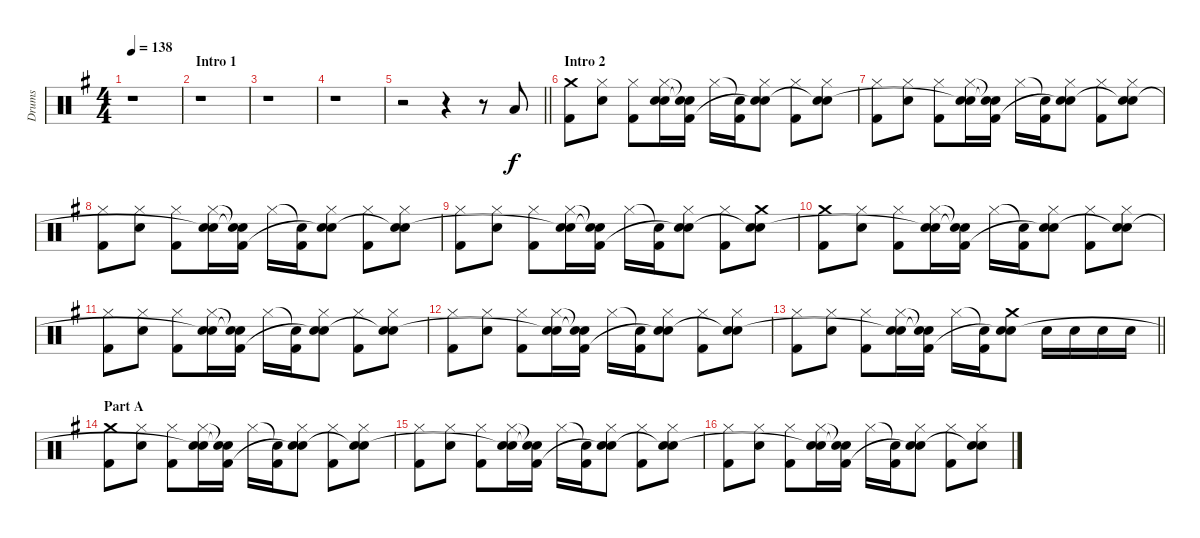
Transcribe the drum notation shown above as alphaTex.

\track ("Drums" "Drums") {instrument percussion}
\staff {score}
\articulation defaults
\ts (4 4)
\tempo 138
\clef neutral
\ks g
r.1{dy f} |
\section ("" "Intro 1")
r.1 |
r.1 |
r.1 |
\barLineRight lightlight
r.2 r.4 r.8 "Low Floor Tom (hit)".8 |
\section ("" "Intro 2")
("Crash medium (hit)" "Kick (hit) 2").8 ("Hi-Hat (closed)" "Electric Snare (hit)").8 ("Hi-Hat (closed)" "Kick (hit) 2").8 ("Hi-Hat (closed)" "Electric Snare (hit)" "Snare (hit)").16 ("Snare (hit)"{t} "Snare (hit)"{t} "Kick (hit) 2").16 "Hi-Hat (closed)".16 ("Snare (hit)"{t} "Kick (hit) 2").16 ("Hi-Hat (closed)" "Electric Snare (hit)" "Snare (hit)"{t}).8 ("Hi-Hat (closed)" "Kick (hit) 2").8 ("Hi-Hat (closed)" "Electric Snare (hit)" "Snare (hit)"{t}).8 |
("Hi-Hat (closed)" "Kick (hit) 2").8 ("Hi-Hat (closed)" "Electric Snare (hit)").8 ("Hi-Hat (closed)" "Kick (hit) 2").8 ("Hi-Hat (closed)" "Electric Snare (hit)" "Snare (hit)"{t}).16 ("Snare (hit)"{t} "Snare (hit)"{t} "Kick (hit) 2").16 "Hi-Hat (closed)".16 ("Snare (hit)"{t} "Kick (hit) 2").16 ("Hi-Hat (closed)" "Electric Snare (hit)" "Snare (hit)"{t}).8 ("Hi-Hat (closed)" "Kick (hit) 2").8 ("Hi-Hat (closed)" "Electric Snare (hit)" "Snare (hit)"{t}).8 |
("Hi-Hat (closed)" "Kick (hit) 2").8 ("Hi-Hat (closed)" "Electric Snare (hit)").8 ("Hi-Hat (closed)" "Kick (hit) 2").8 ("Hi-Hat (closed)" "Electric Snare (hit)" "Snare (hit)"{t}).16 ("Snare (hit)"{t} "Snare (hit)"{t} "Kick (hit) 2").16 "Hi-Hat (closed)".16 ("Snare (hit)"{t} "Kick (hit) 2").16 ("Hi-Hat (closed)" "Electric Snare (hit)" "Snare (hit)"{t}).8 ("Hi-Hat (closed)" "Kick (hit) 2").8 ("Hi-Hat (closed)" "Electric Snare (hit)" "Snare (hit)"{t}).8 |
("Hi-Hat (closed)" "Kick (hit) 2").8 ("Hi-Hat (closed)" "Electric Snare (hit)").8 ("Hi-Hat (closed)" "Kick (hit) 2").8 ("Hi-Hat (closed)" "Electric Snare (hit)" "Snare (hit)"{t}).16 ("Snare (hit)"{t} "Snare (hit)"{t} "Kick (hit) 2").16 "Hi-Hat (closed)".16 ("Snare (hit)"{t} "Kick (hit) 2").16 ("Hi-Hat (closed)" "Electric Snare (hit)" "Snare (hit)"{t}).8 ("Hi-Hat (closed)" "Kick (hit) 2").8 ("Crash medium (hit)" "Electric Snare (hit)" "Snare (hit)"{t}).8 |
("Crash medium (hit)" "Kick (hit) 2").8 ("Hi-Hat (closed)" "Electric Snare (hit)").8 ("Hi-Hat (closed)" "Kick (hit) 2").8 ("Hi-Hat (closed)" "Electric Snare (hit)" "Snare (hit)"{t}).16 ("Snare (hit)"{t} "Snare (hit)"{t} "Kick (hit) 2").16 "Hi-Hat (closed)".16 ("Snare (hit)"{t} "Kick (hit) 2").16 ("Hi-Hat (closed)" "Electric Snare (hit)" "Snare (hit)"{t}).8 ("Hi-Hat (closed)" "Kick (hit) 2").8 ("Hi-Hat (closed)" "Electric Snare (hit)" "Snare (hit)"{t}).8 |
("Hi-Hat (closed)" "Kick (hit) 2").8 ("Hi-Hat (closed)" "Electric Snare (hit)").8 ("Hi-Hat (closed)" "Kick (hit) 2").8 ("Hi-Hat (closed)" "Electric Snare (hit)" "Snare (hit)"{t}).16 ("Snare (hit)"{t} "Snare (hit)"{t} "Kick (hit) 2").16 "Hi-Hat (closed)".16 ("Snare (hit)"{t} "Kick (hit) 2").16 ("Hi-Hat (closed)" "Electric Snare (hit)" "Snare (hit)"{t}).8 ("Hi-Hat (closed)" "Kick (hit) 2").8 ("Hi-Hat (closed)" "Electric Snare (hit)" "Snare (hit)"{t}).8 |
("Hi-Hat (closed)" "Kick (hit) 2").8 ("Hi-Hat (closed)" "Electric Snare (hit)").8 ("Hi-Hat (closed)" "Kick (hit) 2").8 ("Hi-Hat (closed)" "Electric Snare (hit)" "Snare (hit)"{t}).16 ("Snare (hit)"{t} "Snare (hit)"{t} "Kick (hit) 2").16 "Hi-Hat (closed)".16 ("Snare (hit)"{t} "Kick (hit) 2").16 ("Hi-Hat (closed)" "Electric Snare (hit)" "Snare (hit)"{t}).8 ("Hi-Hat (closed)" "Kick (hit) 2").8 ("Hi-Hat (closed)" "Electric Snare (hit)" "Snare (hit)"{t}).8 |
\barLineRight lightlight
("Hi-Hat (closed)" "Kick (hit) 2").8 ("Hi-Hat (closed)" "Electric Snare (hit)").8 ("Hi-Hat (closed)" "Kick (hit) 2").8 ("Hi-Hat (closed)" "Electric Snare (hit)" "Snare (hit)"{t}).16 ("Snare (hit)"{t} "Snare (hit)"{t} "Kick (hit) 2").16 "Hi-Hat (closed)".16 ("Snare (hit)"{t} "Kick (hit) 2").16 ("Crash medium (hit)" "Electric Snare (hit)" "Snare (hit)"{t}).8 "Electric Snare (hit)".16 "Electric Snare (hit)".16 "Electric Snare (hit)".16 "Electric Snare (hit)".16 |
\section ("" "Part A")
("Crash medium (hit)" "Kick (hit) 2").8 ("Hi-Hat (closed)" "Electric Snare (hit)").8 ("Hi-Hat (closed)" "Kick (hit) 2").8 ("Hi-Hat (closed)" "Electric Snare (hit)" "Snare (hit)"{t}).16 ("Snare (hit)"{t} "Snare (hit)"{t} "Kick (hit) 2").16 "Hi-Hat (closed)".16 ("Snare (hit)"{t} "Kick (hit) 2").16 ("Hi-Hat (closed)" "Electric Snare (hit)" "Snare (hit)"{t}).8 ("Hi-Hat (closed)" "Kick (hit) 2").8 ("Hi-Hat (closed)" "Electric Snare (hit)" "Snare (hit)"{t}).8 |
("Hi-Hat (closed)" "Kick (hit) 2").8 ("Hi-Hat (closed)" "Electric Snare (hit)").8 ("Hi-Hat (closed)" "Kick (hit) 2").8 ("Hi-Hat (closed)" "Electric Snare (hit)" "Snare (hit)"{t}).16 ("Snare (hit)"{t} "Snare (hit)"{t} "Kick (hit) 2").16 "Hi-Hat (closed)".16 ("Snare (hit)"{t} "Kick (hit) 2").16 ("Hi-Hat (closed)" "Electric Snare (hit)" "Snare (hit)"{t}).8 ("Hi-Hat (closed)" "Kick (hit) 2").8 ("Hi-Hat (closed)" "Electric Snare (hit)" "Snare (hit)"{t}).8 |
("Hi-Hat (closed)" "Kick (hit) 2").8 ("Hi-Hat (closed)" "Electric Snare (hit)").8 ("Hi-Hat (closed)" "Kick (hit) 2").8 ("Hi-Hat (closed)" "Electric Snare (hit)" "Snare (hit)"{t}).16 ("Snare (hit)"{t} "Snare (hit)"{t} "Kick (hit) 2").16 "Hi-Hat (closed)".16 ("Snare (hit)"{t} "Kick (hit) 2").16 ("Hi-Hat (closed)" "Electric Snare (hit)" "Snare (hit)"{t}).8 ("Hi-Hat (closed)" "Kick (hit) 2").8 ("Hi-Hat (closed)" "Electric Snare (hit)" "Snare (hit)"{t}).8
